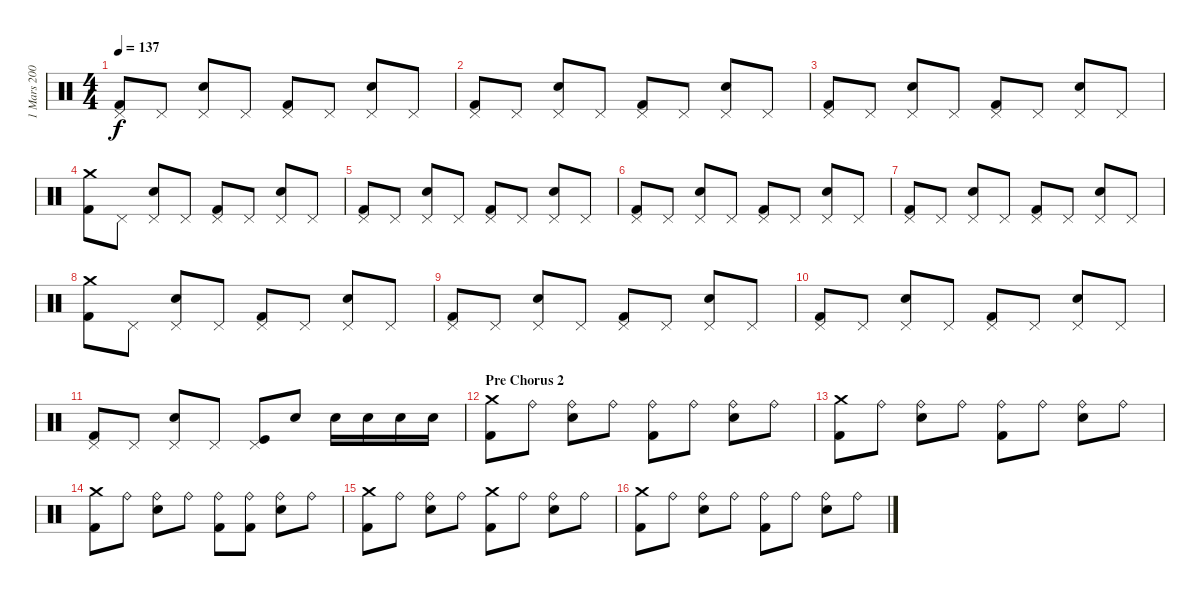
\track ("1 Mars 2004" "1 Mars 200") {instrument percussion}
\staff {score}
\articulation defaults
\ts (4 4)
\tempo 137
\clef neutral
\ks c
("Pedal Hi-Hat (hit)" "Kick (hit) 2").8{dy f} "Pedal Hi-Hat (hit)".8 ("Pedal Hi-Hat (hit)" "Electric Snare (hit)").8 "Pedal Hi-Hat (hit)".8 ("Pedal Hi-Hat (hit)" "Kick (hit) 2").8 "Pedal Hi-Hat (hit)".8 ("Pedal Hi-Hat (hit)" "Electric Snare (hit)").8 "Pedal Hi-Hat (hit)".8 |
("Pedal Hi-Hat (hit)" "Kick (hit) 2").8 "Pedal Hi-Hat (hit)".8 ("Pedal Hi-Hat (hit)" "Electric Snare (hit)").8 "Pedal Hi-Hat (hit)".8 ("Pedal Hi-Hat (hit)" "Kick (hit) 2").8 "Pedal Hi-Hat (hit)".8 ("Pedal Hi-Hat (hit)" "Electric Snare (hit)").8 "Pedal Hi-Hat (hit)".8 |
("Pedal Hi-Hat (hit)" "Kick (hit) 2").8 "Pedal Hi-Hat (hit)".8 ("Pedal Hi-Hat (hit)" "Electric Snare (hit)").8 "Pedal Hi-Hat (hit)".8 ("Pedal Hi-Hat (hit)" "Kick (hit) 2").8 "Pedal Hi-Hat (hit)".8 ("Pedal Hi-Hat (hit)" "Electric Snare (hit)").8 "Pedal Hi-Hat (hit)".8 |
("Crash medium (hit)" "Kick (hit) 2").8 "Pedal Hi-Hat (hit)".8 ("Pedal Hi-Hat (hit)" "Electric Snare (hit)").8 "Pedal Hi-Hat (hit)".8 ("Pedal Hi-Hat (hit)" "Kick (hit) 2").8 "Pedal Hi-Hat (hit)".8 ("Pedal Hi-Hat (hit)" "Electric Snare (hit)").8 "Pedal Hi-Hat (hit)".8 |
("Pedal Hi-Hat (hit)" "Kick (hit) 2").8 "Pedal Hi-Hat (hit)".8 ("Pedal Hi-Hat (hit)" "Electric Snare (hit)").8 "Pedal Hi-Hat (hit)".8 ("Pedal Hi-Hat (hit)" "Kick (hit) 2").8 "Pedal Hi-Hat (hit)".8 ("Pedal Hi-Hat (hit)" "Electric Snare (hit)").8 "Pedal Hi-Hat (hit)".8 |
("Pedal Hi-Hat (hit)" "Kick (hit) 2").8 "Pedal Hi-Hat (hit)".8 ("Pedal Hi-Hat (hit)" "Electric Snare (hit)").8 "Pedal Hi-Hat (hit)".8 ("Pedal Hi-Hat (hit)" "Kick (hit) 2").8 "Pedal Hi-Hat (hit)".8 ("Pedal Hi-Hat (hit)" "Electric Snare (hit)").8 "Pedal Hi-Hat (hit)".8 |
("Pedal Hi-Hat (hit)" "Kick (hit) 2").8 "Pedal Hi-Hat (hit)".8 ("Pedal Hi-Hat (hit)" "Electric Snare (hit)").8 "Pedal Hi-Hat (hit)".8 ("Pedal Hi-Hat (hit)" "Kick (hit) 2").8 "Pedal Hi-Hat (hit)".8 ("Pedal Hi-Hat (hit)" "Electric Snare (hit)").8 "Pedal Hi-Hat (hit)".8 |
("Crash medium (hit)" "Kick (hit) 2").8 "Pedal Hi-Hat (hit)".8 ("Pedal Hi-Hat (hit)" "Electric Snare (hit)").8 "Pedal Hi-Hat (hit)".8 ("Pedal Hi-Hat (hit)" "Kick (hit) 2").8 "Pedal Hi-Hat (hit)".8 ("Pedal Hi-Hat (hit)" "Electric Snare (hit)").8 "Pedal Hi-Hat (hit)".8 |
("Pedal Hi-Hat (hit)" "Kick (hit) 2").8 "Pedal Hi-Hat (hit)".8 ("Pedal Hi-Hat (hit)" "Electric Snare (hit)").8 "Pedal Hi-Hat (hit)".8 ("Pedal Hi-Hat (hit)" "Kick (hit) 2").8 "Pedal Hi-Hat (hit)".8 ("Pedal Hi-Hat (hit)" "Electric Snare (hit)").8 "Pedal Hi-Hat (hit)".8 |
("Pedal Hi-Hat (hit)" "Kick (hit) 2").8 "Pedal Hi-Hat (hit)".8 ("Pedal Hi-Hat (hit)" "Electric Snare (hit)").8 "Pedal Hi-Hat (hit)".8 ("Pedal Hi-Hat (hit)" "Kick (hit) 2").8 "Pedal Hi-Hat (hit)".8 ("Pedal Hi-Hat (hit)" "Electric Snare (hit)").8 "Pedal Hi-Hat (hit)".8 |
("Pedal Hi-Hat (hit)" "Kick (hit) 2").8 "Pedal Hi-Hat (hit)".8 ("Pedal Hi-Hat (hit)" "Electric Snare (hit)").8 "Pedal Hi-Hat (hit)".8 ("Pedal Hi-Hat (hit)" "Kick (hit)").8 "Electric Snare (hit)".8 "Electric Snare (hit)".16 "Electric Snare (hit)".16 "Electric Snare (hit)".16 "Electric Snare (hit)".16 |
\section ("" "Pre Chorus 2")
("Crash medium (hit)" "Kick (hit) 2").8 "Ride (bell)".8 ("Ride (bell)" "Electric Snare (hit)").8 "Ride (bell)".8 ("Ride (bell)" "Kick (hit) 2").8 "Ride (bell)".8 ("Ride (bell)" "Electric Snare (hit)").8 "Ride (bell)".8 |
("Crash medium (hit)" "Kick (hit) 2").8 "Ride (bell)".8 ("Ride (bell)" "Electric Snare (hit)").8 "Ride (bell)".8 ("Ride (bell)" "Kick (hit) 2").8 "Ride (bell)".8 ("Ride (bell)" "Electric Snare (hit)").8 "Ride (bell)".8 |
("Crash medium (hit)" "Kick (hit) 2").8 "Ride (bell)".8 ("Ride (bell)" "Electric Snare (hit)").8 "Ride (bell)".8 ("Ride (bell)" "Kick (hit) 2").8 ("Ride (bell)" "Kick (hit) 2").8 ("Ride (bell)" "Electric Snare (hit)").8 "Ride (bell)".8 |
("Crash medium (hit)" "Kick (hit) 2").8 "Ride (bell)".8 ("Ride (bell)" "Electric Snare (hit)").8 "Ride (bell)".8 ("Crash medium (hit)" "Kick (hit) 2").8 "Ride (bell)".8 ("Ride (bell)" "Electric Snare (hit)").8 "Ride (bell)".8 |
("Crash medium (hit)" "Kick (hit) 2").8 "Ride (bell)".8 ("Ride (bell)" "Electric Snare (hit)").8 "Ride (bell)".8 ("Ride (bell)" "Kick (hit) 2").8 "Ride (bell)".8 ("Ride (bell)" "Electric Snare (hit)").8 "Ride (bell)".8
